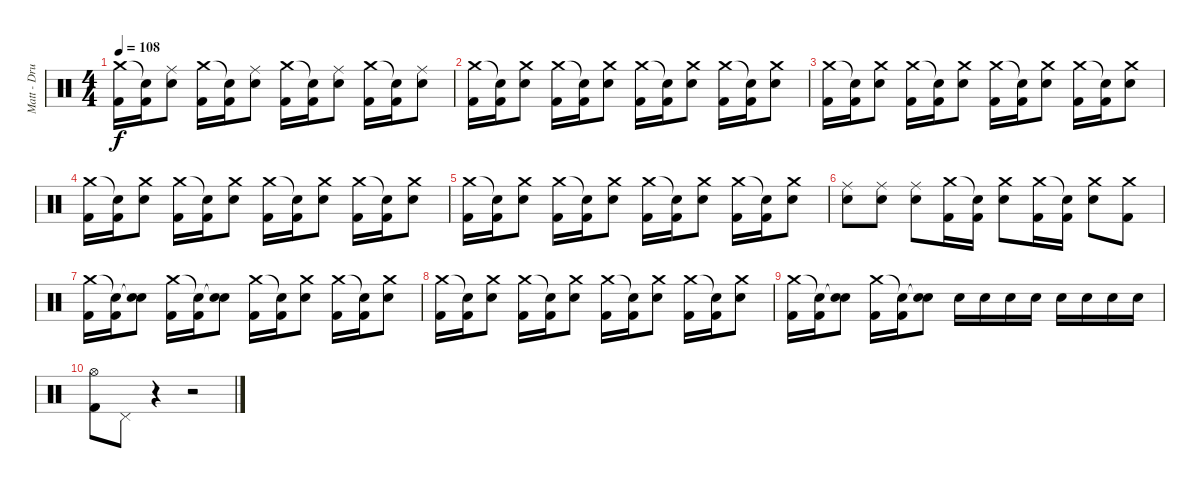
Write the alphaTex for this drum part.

\track ("Matt - Drums" "Matt - Dru") {instrument percussion}
\staff {score}
\articulation defaults
\ts (4 4)
\tempo 108
\clef neutral
\ks c
("Crash medium (hit)" "Kick (hit) 2").16{dy f} ("Snare (hit)"{t} "Kick (hit) 2").16 ("Ride (middle)" "Snare (hit) 2").8 ("Crash medium (hit)" "Kick (hit) 2").16 ("Snare (hit)"{t} "Kick (hit) 2").16 ("Ride (middle)" "Snare (hit) 2").8 ("Crash medium (hit)" "Kick (hit) 2").16 ("Snare (hit)"{t} "Kick (hit) 2").16 ("Ride (middle)" "Snare (hit) 2").8 ("Crash medium (hit)" "Kick (hit) 2").16 ("Snare (hit)"{t} "Kick (hit) 2").16 ("Ride (middle)" "Snare (hit) 2").8 |
("Crash medium (hit)" "Kick (hit) 2").16 ("Snare (hit)"{t} "Kick (hit) 2").16 ("Crash medium (hit)" "Snare (hit) 2").8 ("Crash medium (hit)" "Kick (hit) 2").16 ("Snare (hit)"{t} "Kick (hit) 2").16 ("Crash medium (hit)" "Snare (hit) 2").8 ("Crash medium (hit)" "Kick (hit) 2").16 ("Snare (hit)"{t} "Kick (hit) 2").16 ("Crash medium (hit)" "Snare (hit) 2").8 ("Crash medium (hit)" "Kick (hit) 2").16 ("Snare (hit)"{t} "Kick (hit) 2").16 ("Crash medium (hit)" "Snare (hit) 2").8 |
("Crash medium (hit)" "Kick (hit) 2").16 ("Snare (hit)"{t} "Kick (hit) 2").16 ("Crash medium (hit)" "Snare (hit) 2").8 ("Crash medium (hit)" "Kick (hit) 2").16 ("Snare (hit)"{t} "Kick (hit) 2").16 ("Crash medium (hit)" "Snare (hit) 2").8 ("Crash medium (hit)" "Kick (hit) 2").16 ("Snare (hit)"{t} "Kick (hit) 2").16 ("Crash medium (hit)" "Snare (hit) 2").8 ("Crash medium (hit)" "Kick (hit) 2").16 ("Snare (hit)"{t} "Kick (hit) 2").16 ("Crash medium (hit)" "Snare (hit) 2").8 |
("Crash medium (hit)" "Kick (hit) 2").16 ("Snare (hit)"{t} "Kick (hit) 2").16 ("Crash medium (hit)" "Snare (hit) 2").8 ("Crash medium (hit)" "Kick (hit) 2").16 ("Snare (hit)"{t} "Kick (hit) 2").16 ("Crash medium (hit)" "Snare (hit) 2").8 ("Crash medium (hit)" "Kick (hit) 2").16 ("Snare (hit)"{t} "Kick (hit) 2").16 ("Crash medium (hit)" "Snare (hit) 2").8 ("Crash medium (hit)" "Kick (hit) 2").16 ("Snare (hit)"{t} "Kick (hit) 2").16 ("Crash medium (hit)" "Snare (hit) 2").8 |
("Crash medium (hit)" "Kick (hit) 2").16 ("Snare (hit)"{t} "Kick (hit) 2").16 ("Crash medium (hit)" "Snare (hit) 2").8 ("Crash medium (hit)" "Kick (hit) 2").16 ("Snare (hit)"{t} "Kick (hit) 2").16 ("Crash medium (hit)" "Snare (hit) 2").8 ("Crash medium (hit)" "Kick (hit) 2").16 ("Snare (hit)"{t} "Kick (hit) 2").16 ("Crash medium (hit)" "Snare (hit) 2").8 ("Crash medium (hit)" "Kick (hit) 2").16 ("Snare (hit)"{t} "Kick (hit) 2").16 ("Crash medium (hit)" "Snare (hit) 2").8 |
("Ride (middle)" "Snare (hit) 2").8 ("Ride (middle)" "Snare (hit) 2").8 ("Ride (middle)" "Snare (hit) 2").8 ("Crash medium (hit)" "Kick (hit) 2").16 ("Snare (hit)"{t} "Kick (hit) 2").16 ("Crash medium (hit)" "Snare (hit) 2").8 ("Crash medium (hit)" "Kick (hit) 2").16 ("Snare (hit)"{t} "Kick (hit) 2").16 ("Crash medium (hit)" "Snare (hit) 2").8 ("Crash medium (hit)" "Kick (hit) 2").8 |
("Crash medium (hit)" "Kick (hit) 2").16 ("Snare (hit)"{t} "Kick (hit) 2").16 ("Snare (hit)"{t} "Snare (hit) 2").8 ("Crash medium (hit)" "Kick (hit) 2").16 ("Snare (hit)"{t} "Kick (hit) 2").16 ("Snare (hit)"{t} "Snare (hit) 2").8 ("Crash medium (hit)" "Kick (hit) 2").16 ("Snare (hit)"{t} "Kick (hit) 2").16 ("Crash medium (hit)" "Snare (hit) 2").8 ("Crash medium (hit)" "Kick (hit) 2").16 ("Snare (hit)"{t} "Kick (hit) 2").16 ("Crash medium (hit)" "Snare (hit) 2").8 |
("Crash medium (hit)" "Kick (hit) 2").16 ("Snare (hit)"{t} "Kick (hit) 2").16 ("Crash medium (hit)" "Snare (hit) 2").8 ("Crash medium (hit)" "Kick (hit) 2").16 ("Snare (hit)"{t} "Kick (hit) 2").16 ("Crash medium (hit)" "Snare (hit) 2").8 ("Crash medium (hit)" "Kick (hit) 2").16 ("Snare (hit)"{t} "Kick (hit) 2").16 ("Crash medium (hit)" "Snare (hit) 2").8 ("Crash medium (hit)" "Kick (hit) 2").16 ("Snare (hit)"{t} "Kick (hit) 2").16 ("Crash medium (hit)" "Snare (hit) 2").8 |
("Crash medium (hit)" "Kick (hit) 2").16 ("Snare (hit)"{t} "Kick (hit) 2").16 ("Snare (hit)"{t} "Snare (hit) 2").8 ("Crash medium (hit)" "Kick (hit) 2").16 ("Snare (hit)"{t} "Kick (hit) 2").16 ("Snare (hit)"{t} "Snare (hit) 2").8 "Snare (hit) 2".16 "Snare (hit) 2".16 "Snare (hit) 2".16 "Snare (hit) 2".16 "Snare (hit) 2".16 "Snare (hit) 2".16 "Snare (hit) 2".16 "Snare (hit) 2".16 |
("Hi-Hat (open)" "Kick (hit) 2").8 "Pedal Hi-Hat (hit)".8 r.4 r.2
